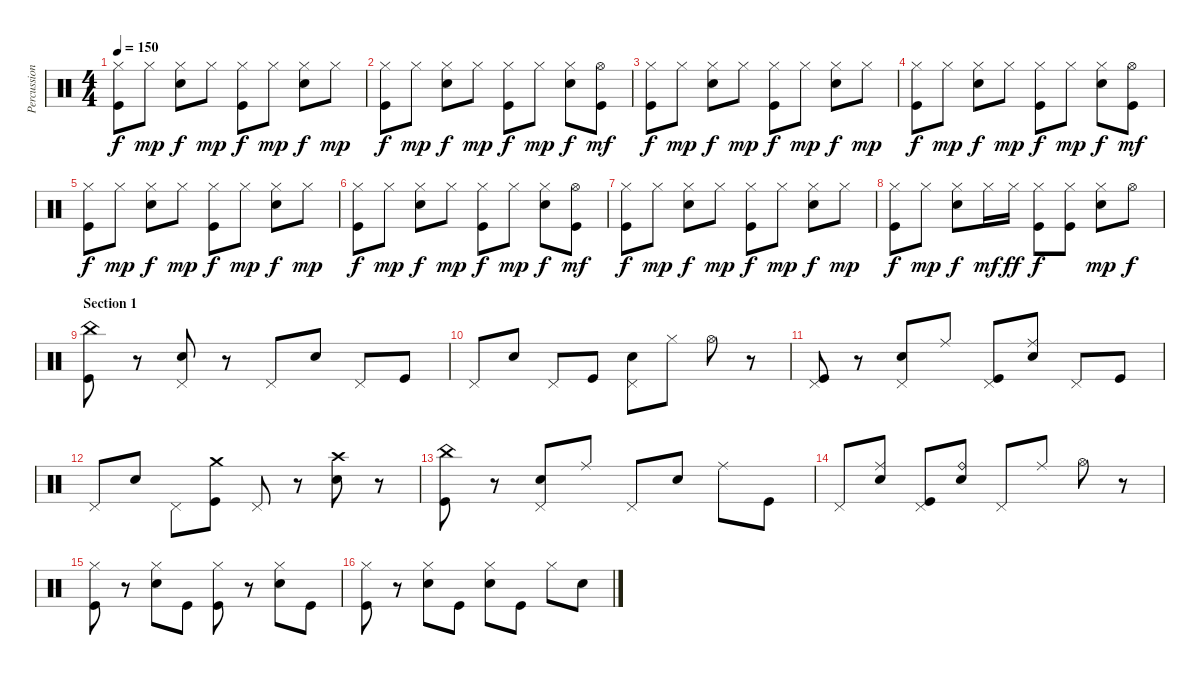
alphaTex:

\track ("Percussion" "Percussion") {instrument percussion}
\staff {score}
\articulation defaults
\ts (4 4)
\tempo 150
\clef neutral
\ks c
("Hi-Hat (closed)" "Kick (hit)").8{dy f} "Hi-Hat (closed)".8{dy mp} ("Hi-Hat (closed)" "Electric Snare (hit)").8{dy f} "Hi-Hat (closed)".8{dy mp} ("Hi-Hat (closed)" "Kick (hit)").8{dy f} "Hi-Hat (closed)".8{dy mp} ("Hi-Hat (closed)" "Electric Snare (hit)").8{dy f} "Hi-Hat (closed)".8{dy mp} |
("Hi-Hat (closed)" "Kick (hit)").8{dy f} "Hi-Hat (closed)".8{dy mp} ("Hi-Hat (closed)" "Electric Snare (hit)").8{dy f} "Hi-Hat (closed)".8{dy mp} ("Hi-Hat (closed)" "Kick (hit)").8{dy f} "Hi-Hat (closed)".8{dy mp} ("Hi-Hat (closed)" "Electric Snare (hit)").8{dy f} ("Hi-Hat (open)" "Kick (hit)").8{dy mf} |
("Hi-Hat (closed)" "Kick (hit)").8{dy f} "Hi-Hat (closed)".8{dy mp} ("Hi-Hat (closed)" "Electric Snare (hit)").8{dy f} "Hi-Hat (closed)".8{dy mp} ("Hi-Hat (closed)" "Kick (hit)").8{dy f} "Hi-Hat (closed)".8{dy mp} ("Hi-Hat (closed)" "Electric Snare (hit)").8{dy f} "Hi-Hat (closed)".8{dy mp} |
("Hi-Hat (closed)" "Kick (hit)").8{dy f} "Hi-Hat (closed)".8{dy mp} ("Hi-Hat (closed)" "Electric Snare (hit)").8{dy f} "Hi-Hat (closed)".8{dy mp} ("Hi-Hat (closed)" "Kick (hit)").8{dy f} "Hi-Hat (closed)".8{dy mp} ("Hi-Hat (closed)" "Electric Snare (hit)").8{dy f} ("Hi-Hat (open)" "Kick (hit)").8{dy mf} |
("Hi-Hat (closed)" "Kick (hit)").8{dy f} "Hi-Hat (closed)".8{dy mp} ("Hi-Hat (closed)" "Electric Snare (hit)").8{dy f} "Hi-Hat (closed)".8{dy mp} ("Hi-Hat (closed)" "Kick (hit)").8{dy f} "Hi-Hat (closed)".8{dy mp} ("Hi-Hat (closed)" "Electric Snare (hit)").8{dy f} "Hi-Hat (closed)".8{dy mp} |
("Hi-Hat (closed)" "Kick (hit)").8{dy f} "Hi-Hat (closed)".8{dy mp} ("Hi-Hat (closed)" "Electric Snare (hit)").8{dy f} "Hi-Hat (closed)".8{dy mp} ("Hi-Hat (closed)" "Kick (hit)").8{dy f} "Hi-Hat (closed)".8{dy mp} ("Hi-Hat (closed)" "Electric Snare (hit)").8{dy f} ("Hi-Hat (open)" "Kick (hit)").8{dy mf} |
("Hi-Hat (closed)" "Kick (hit)").8{dy f} "Hi-Hat (closed)".8{dy mp} ("Hi-Hat (closed)" "Electric Snare (hit)").8{dy f} "Hi-Hat (closed)".8{dy mp} ("Hi-Hat (closed)" "Kick (hit)").8{dy f} "Hi-Hat (closed)".8{dy mp} ("Hi-Hat (closed)" "Electric Snare (hit)").8{dy f} "Hi-Hat (closed)".8{dy mp} |
("Hi-Hat (closed)" "Kick (hit)").8{dy f} "Hi-Hat (closed)".8{dy mp} ("Hi-Hat (closed)" "Electric Snare (hit)").8{dy f} "Hi-Hat (closed)".16{dy mf} "Hi-Hat (closed)".16{dy ff} ("Hi-Hat (closed)" "Kick (hit)").8{dy f} ("Hi-Hat (closed)" "Kick (hit)").8 ("Hi-Hat (closed)" "Electric Snare (hit)").8{dy mp} "Hi-Hat (open)".8{dy f} |
\section ("" "Section 1")
("China (hit)" "Kick (hit)").8 r.8 ("Pedal Hi-Hat (hit)" "Electric Snare (hit)").8 r.8 "Pedal Hi-Hat (hit)".8 "Electric Snare (hit)".8 "Pedal Hi-Hat (hit)".8 "Kick (hit)".8 |
"Pedal Hi-Hat (hit)".8 "Electric Snare (hit)".8 "Pedal Hi-Hat (hit)".8 "Kick (hit)".8 ("Pedal Hi-Hat (hit)" "Electric Snare (hit)").8 "Hi-Hat (closed)".8 "Hi-Hat (open)".8 r.8 |
("Pedal Hi-Hat (hit)" "Kick (hit)").8 r.8 ("Pedal Hi-Hat (hit)" "Electric Snare (hit)").8 "Ride (middle)".8 ("Pedal Hi-Hat (hit)" "Kick (hit)").8 ("Ride (middle)" "Electric Snare (hit)").8 "Pedal Hi-Hat (hit)".8 "Kick (hit)".8 |
"Pedal Hi-Hat (hit)".8 "Electric Snare (hit)".8 "Pedal Hi-Hat (hit)".8 ("Crash medium (hit)" "Kick (hit)").8 "Pedal Hi-Hat (hit)".8 r.8 ("Crash high (hit)" "Electric Snare (hit)").8 r.8 |
("China (hit)" "Kick (hit)").8 r.8 ("Pedal Hi-Hat (hit)" "Electric Snare (hit)").8 "Ride (middle)".8 "Pedal Hi-Hat (hit)".8 "Electric Snare (hit)".8 "Ride (middle)".8 "Kick (hit)".8 |
"Pedal Hi-Hat (hit)".8 ("Ride (middle)" "Electric Snare (hit)").8 ("Pedal Hi-Hat (hit)" "Kick (hit)").8 ("Ride (bell)" "Electric Snare (hit)").8 "Pedal Hi-Hat (hit)".8 "Ride (middle)".8 "Hi-Hat (open)".8 r.8 |
("Hi-Hat (closed)" "Kick (hit)").8 r.8 ("Hi-Hat (closed)" "Electric Snare (hit)").8 "Kick (hit)".8 ("Hi-Hat (closed)" "Kick (hit)").8 r.8 ("Hi-Hat (closed)" "Electric Snare (hit)").8 "Kick (hit)".8 |
("Hi-Hat (closed)" "Kick (hit)").8 r.8 ("Hi-Hat (closed)" "Electric Snare (hit)").8 "Kick (hit)".8 ("Hi-Hat (closed)" "Electric Snare (hit)").8 "Kick (hit)".8 "Hi-Hat (closed)".8 "Electric Snare (hit)".8
